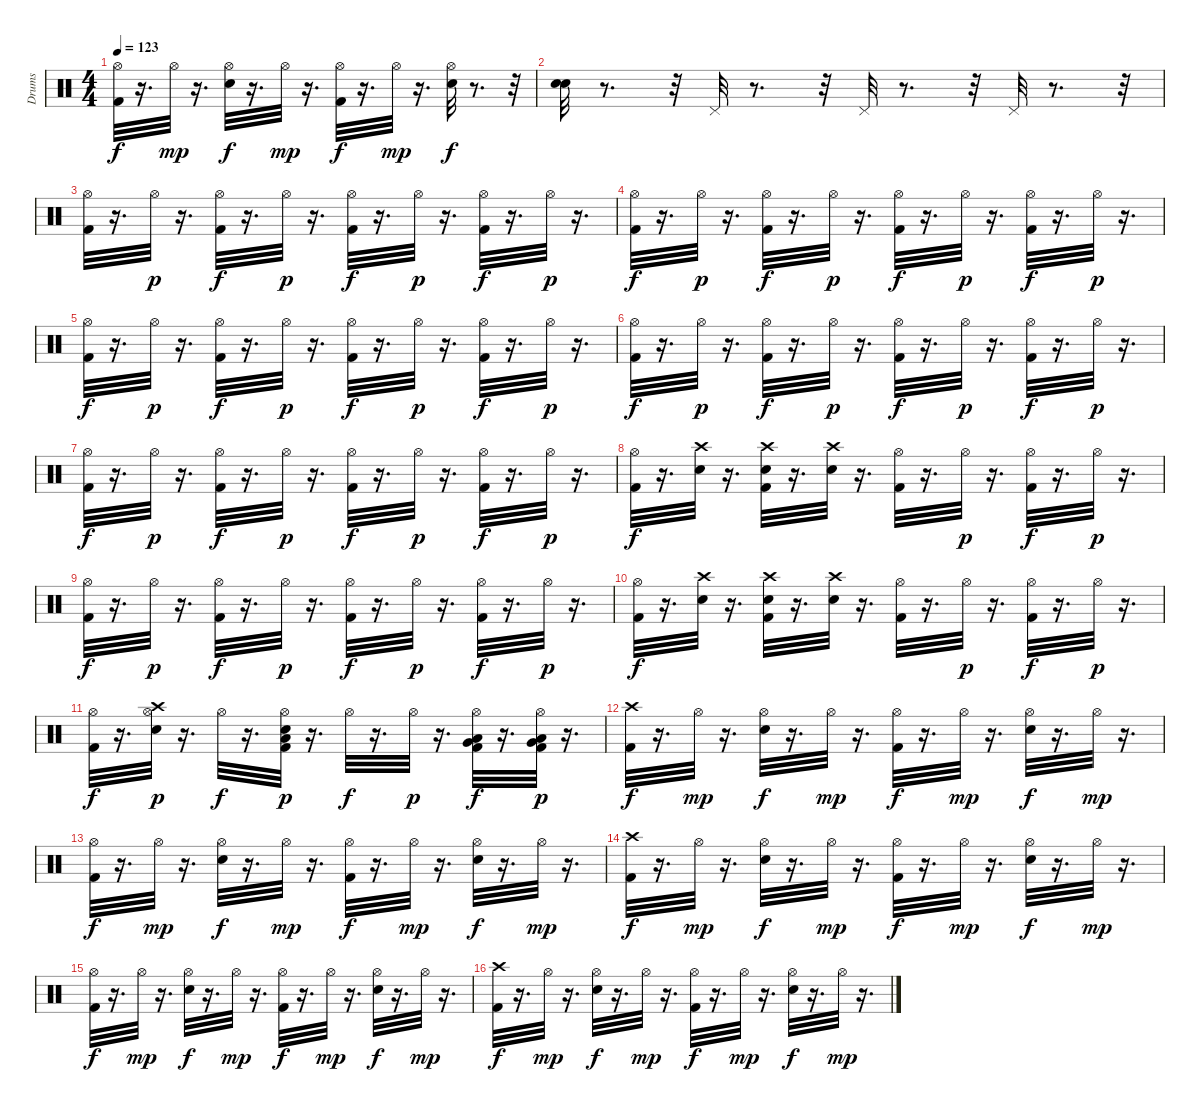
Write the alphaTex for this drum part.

\track ("Drums" "Drums") {instrument percussion}
\staff {score}
\articulation defaults
\ts (4 4)
\tempo 123
\clef neutral
\ks c
("Hi-Hat (open)" "Kick (hit) 2").32{dy f} r.16{d} "Hi-Hat (open)".32{dy mp} r.16{d} ("Hi-Hat (open)" "Electric Snare (hit)").32{dy f} r.16{d} "Hi-Hat (open)".32{dy mp} r.16{d} ("Hi-Hat (open)" "Kick (hit) 2").32{dy f} r.16{d} "Hi-Hat (open)".32{dy mp} r.16{d} ("Hi-Hat (open)" "Electric Snare (hit)").32{dy f} r.8{d} r.32 |
("Electric Snare (hit)" "Snare (hit) 2").32 r.8{d} r.32 "Pedal Hi-Hat (hit)".32 r.8{d} r.32 "Pedal Hi-Hat (hit)".32 r.8{d} r.32 "Pedal Hi-Hat (hit)".32 r.8{d} r.32 |
("Hi-Hat (open)" "Kick (hit) 2").32 r.16{d} "Hi-Hat (open)".32{dy p} r.16{d} ("Hi-Hat (open)" "Kick (hit) 2").32{dy f} r.16{d} "Hi-Hat (open)".32{dy p} r.16{d} ("Hi-Hat (open)" "Kick (hit) 2").32{dy f} r.16{d} "Hi-Hat (open)".32{dy p} r.16{d} ("Hi-Hat (open)" "Kick (hit) 2").32{dy f} r.16{d} "Hi-Hat (open)".32{dy p} r.16{d} |
("Hi-Hat (open)" "Kick (hit) 2").32{dy f} r.16{d} "Hi-Hat (open)".32{dy p} r.16{d} ("Hi-Hat (open)" "Kick (hit) 2").32{dy f} r.16{d} "Hi-Hat (open)".32{dy p} r.16{d} ("Hi-Hat (open)" "Kick (hit) 2").32{dy f} r.16{d} "Hi-Hat (open)".32{dy p} r.16{d} ("Hi-Hat (open)" "Kick (hit) 2").32{dy f} r.16{d} "Hi-Hat (open)".32{dy p} r.16{d} |
("Hi-Hat (open)" "Kick (hit) 2").32{dy f} r.16{d} "Hi-Hat (open)".32{dy p} r.16{d} ("Hi-Hat (open)" "Kick (hit) 2").32{dy f} r.16{d} "Hi-Hat (open)".32{dy p} r.16{d} ("Hi-Hat (open)" "Kick (hit) 2").32{dy f} r.16{d} "Hi-Hat (open)".32{dy p} r.16{d} ("Hi-Hat (open)" "Kick (hit) 2").32{dy f} r.16{d} "Hi-Hat (open)".32{dy p} r.16{d} |
("Hi-Hat (open)" "Kick (hit) 2").32{dy f} r.16{d} "Hi-Hat (open)".32{dy p} r.16{d} ("Hi-Hat (open)" "Kick (hit) 2").32{dy f} r.16{d} "Hi-Hat (open)".32{dy p} r.16{d} ("Hi-Hat (open)" "Kick (hit) 2").32{dy f} r.16{d} "Hi-Hat (open)".32{dy p} r.16{d} ("Hi-Hat (open)" "Kick (hit) 2").32{dy f} r.16{d} "Hi-Hat (open)".32{dy p} r.16{d} |
("Hi-Hat (open)" "Kick (hit) 2").32{dy f} r.16{d} "Hi-Hat (open)".32{dy p} r.16{d} ("Hi-Hat (open)" "Kick (hit) 2").32{dy f} r.16{d} "Hi-Hat (open)".32{dy p} r.16{d} ("Hi-Hat (open)" "Kick (hit) 2").32{dy f} r.16{d} "Hi-Hat (open)".32{dy p} r.16{d} ("Hi-Hat (open)" "Kick (hit) 2").32{dy f} r.16{d} "Hi-Hat (open)".32{dy p} r.16{d} |
("Hi-Hat (open)" "Kick (hit) 2").32{dy f} r.16{d} ("Crash high (hit)" "Electric Snare (hit)").32 r.16{d} ("Crash high (hit)" "Electric Snare (hit)" "Kick (hit) 2").32 r.16{d} ("Crash high (hit)" "Electric Snare (hit)").32 r.16{d} ("Hi-Hat (open)" "Kick (hit) 2").32 r.16{d} "Hi-Hat (open)".32{dy p} r.16{d} ("Hi-Hat (open)" "Kick (hit) 2").32{dy f} r.16{d} "Hi-Hat (open)".32{dy p} r.16{d} |
("Hi-Hat (open)" "Kick (hit) 2").32{dy f} r.16{d} "Hi-Hat (open)".32{dy p} r.16{d} ("Hi-Hat (open)" "Kick (hit) 2").32{dy f} r.16{d} "Hi-Hat (open)".32{dy p} r.16{d} ("Hi-Hat (open)" "Kick (hit) 2").32{dy f} r.16{d} "Hi-Hat (open)".32{dy p} r.16{d} ("Hi-Hat (open)" "Kick (hit) 2").32{dy f} r.16{d} "Hi-Hat (open)".32{dy p} r.16{d} |
("Hi-Hat (open)" "Kick (hit) 2").32{dy f} r.16{d} ("Crash high (hit)" "Electric Snare (hit)").32 r.16{d} ("Crash high (hit)" "Electric Snare (hit)" "Kick (hit) 2").32 r.16{d} ("Crash high (hit)" "Electric Snare (hit)").32 r.16{d} ("Hi-Hat (open)" "Kick (hit) 2").32 r.16{d} "Hi-Hat (open)".32{dy p} r.16{d} ("Hi-Hat (open)" "Kick (hit) 2").32{dy f} r.16{d} "Hi-Hat (open)".32{dy p} r.16{d} |
("Hi-Hat (open)" "Kick (hit) 2").32{dy f} r.16{d} ("Crash high (hit)" "Electric Snare (hit)" "Hi-Hat (open)").32{dy p} r.16{d} "Hi-Hat (open)".32{dy f} r.16{d} ("Low Floor Tom (hit)" "Electric Snare (hit)" "Hi-Hat (open)" "Kick (hit) 2").32{dy p} r.16{d} "Hi-Hat (open)".32{dy f} r.16{d} "Hi-Hat (open)".32{dy p} r.16{d} ("Very Low Tom (hit)" "Low Floor Tom (hit)" "Hi-Hat (open)" "Kick (hit) 2").32{dy f} r.16{d} ("Very Low Tom (hit)" "Low Floor Tom (hit)" "Hi-Hat (open)" "Kick (hit) 2").32{dy p} r.16{d} |
("Crash high (hit)" "Kick (hit) 2").32{dy f} r.16{d} "Hi-Hat (open)".32{dy mp} r.16{d} ("Hi-Hat (open)" "Electric Snare (hit)").32{dy f} r.16{d} "Hi-Hat (open)".32{dy mp} r.16{d} ("Kick (hit) 2" "Hi-Hat (open)").32{dy f} r.16{d} "Hi-Hat (open)".32{dy mp} r.16{d} ("Hi-Hat (open)" "Electric Snare (hit)").32{dy f} r.16{d} "Hi-Hat (open)".32{dy mp} r.16{d} |
("Hi-Hat (open)" "Kick (hit) 2").32{dy f} r.16{d} "Hi-Hat (open)".32{dy mp} r.16{d} ("Hi-Hat (open)" "Electric Snare (hit)").32{dy f} r.16{d} "Hi-Hat (open)".32{dy mp} r.16{d} ("Hi-Hat (open)" "Kick (hit) 2").32{dy f} r.16{d} "Hi-Hat (open)".32{dy mp} r.16{d} ("Hi-Hat (open)" "Electric Snare (hit)").32{dy f} r.16{d} "Hi-Hat (open)".32{dy mp} r.16{d} |
("Crash high (hit)" "Kick (hit) 2").32{dy f} r.16{d} "Hi-Hat (open)".32{dy mp} r.16{d} ("Hi-Hat (open)" "Electric Snare (hit)").32{dy f} r.16{d} "Hi-Hat (open)".32{dy mp} r.16{d} ("Kick (hit) 2" "Hi-Hat (open)").32{dy f} r.16{d} "Hi-Hat (open)".32{dy mp} r.16{d} ("Hi-Hat (open)" "Electric Snare (hit)").32{dy f} r.16{d} "Hi-Hat (open)".32{dy mp} r.16{d} |
("Hi-Hat (open)" "Kick (hit) 2").32{dy f} r.16{d} "Hi-Hat (open)".32{dy mp} r.16{d} ("Hi-Hat (open)" "Electric Snare (hit)").32{dy f} r.16{d} "Hi-Hat (open)".32{dy mp} r.16{d} ("Hi-Hat (open)" "Kick (hit) 2").32{dy f} r.16{d} "Hi-Hat (open)".32{dy mp} r.16{d} ("Hi-Hat (open)" "Electric Snare (hit)").32{dy f} r.16{d} "Hi-Hat (open)".32{dy mp} r.16{d} |
("Crash high (hit)" "Kick (hit) 2").32{dy f} r.16{d} "Hi-Hat (open)".32{dy mp} r.16{d} ("Hi-Hat (open)" "Electric Snare (hit)").32{dy f} r.16{d} "Hi-Hat (open)".32{dy mp} r.16{d} ("Kick (hit) 2" "Hi-Hat (open)").32{dy f} r.16{d} "Hi-Hat (open)".32{dy mp} r.16{d} ("Hi-Hat (open)" "Electric Snare (hit)").32{dy f} r.16{d} "Hi-Hat (open)".32{dy mp} r.16{d}
